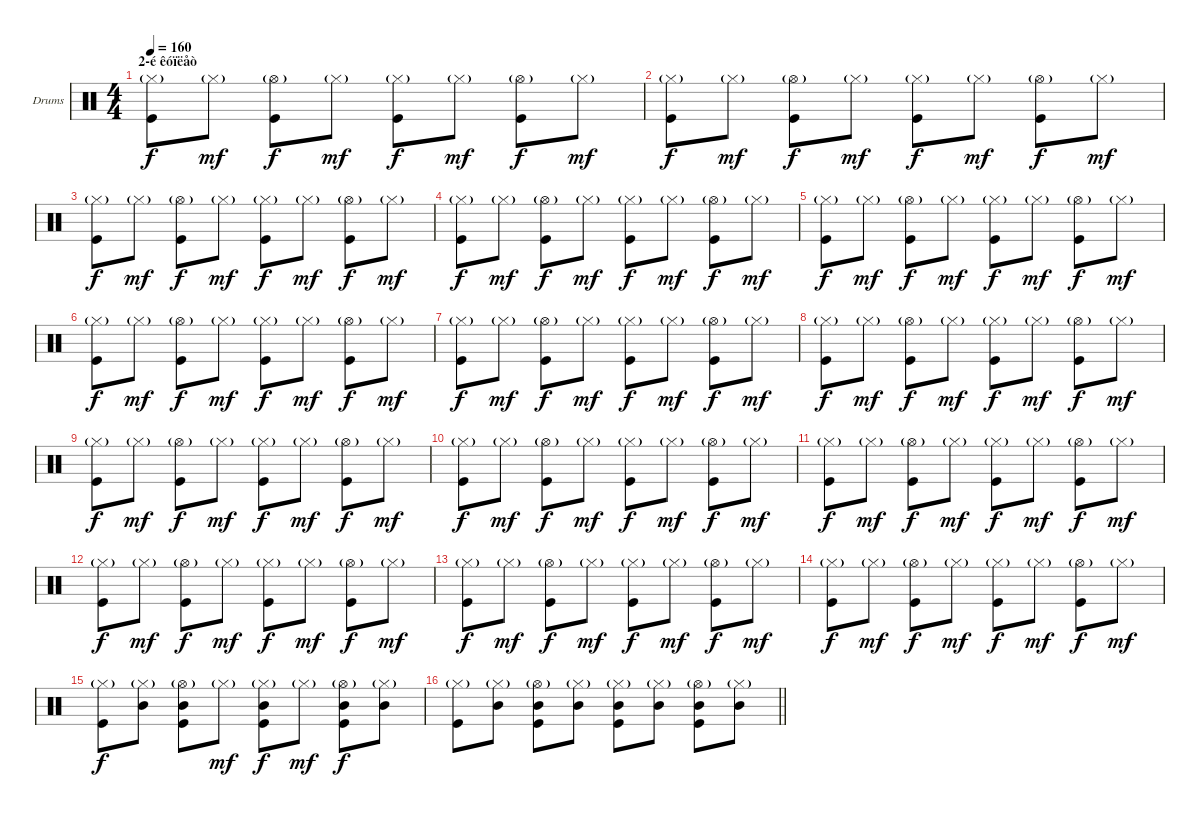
\bracketExtendMode groupsimilarinstruments
\firstSystemTrackNameOrientation horizontal
\otherSystemsTrackNameOrientation horizontal
\track ("Гурьянов" "Drums") {instrument percussion}
\staff {score}
\articulation defaults
\ts (4 4)
\section ("" "2-é êóïëåò")
\tempo 160
\clef neutral
\scale
0.333333
\ks c
("Hi-Hat (closed)"{g} "Kick (hit)").8{dy f} "Hi-Hat (closed)"{g}.8{dy mf} ("Hi-Hat (open)"{g} "Kick (hit)").8{dy f} "Hi-Hat (closed)"{g}.8{dy mf} ("Hi-Hat (closed)"{g} "Kick (hit)").8{dy f} "Hi-Hat (closed)"{g}.8{dy mf} ("Hi-Hat (open)"{g} "Kick (hit)").8{dy f} "Hi-Hat (closed)"{g}.8{dy mf} |
\scale
0.333333 ("Hi-Hat (closed)"{g} "Kick (hit)").8{dy f} "Hi-Hat (closed)"{g}.8{dy mf} ("Hi-Hat (open)"{g} "Kick (hit)").8{dy f} "Hi-Hat (closed)"{g}.8{dy mf} ("Hi-Hat (closed)"{g} "Kick (hit)").8{dy f} "Hi-Hat (closed)"{g}.8{dy mf} ("Hi-Hat (open)"{g} "Kick (hit)").8{dy f} "Hi-Hat (closed)"{g}.8{dy mf} |
\scale
0.333333 ("Hi-Hat (closed)"{g} "Kick (hit)").8{dy f} "Hi-Hat (closed)"{g}.8{dy mf} ("Hi-Hat (open)"{g} "Kick (hit)").8{dy f} "Hi-Hat (closed)"{g}.8{dy mf} ("Hi-Hat (closed)"{g} "Kick (hit)").8{dy f} "Hi-Hat (closed)"{g}.8{dy mf} ("Hi-Hat (open)"{g} "Kick (hit)").8{dy f} "Hi-Hat (closed)"{g}.8{dy mf} |
\scale
0.333333 ("Hi-Hat (closed)"{g} "Kick (hit)").8{dy f} "Hi-Hat (closed)"{g}.8{dy mf} ("Hi-Hat (open)"{g} "Kick (hit)").8{dy f} "Hi-Hat (closed)"{g}.8{dy mf} ("Hi-Hat (closed)"{g} "Kick (hit)").8{dy f} "Hi-Hat (closed)"{g}.8{dy mf} ("Hi-Hat (open)"{g} "Kick (hit)").8{dy f} "Hi-Hat (closed)"{g}.8{dy mf} |
\scale
0.333333 ("Hi-Hat (closed)"{g} "Kick (hit)").8{dy f} "Hi-Hat (closed)"{g}.8{dy mf} ("Hi-Hat (open)"{g} "Kick (hit)").8{dy f} "Hi-Hat (closed)"{g}.8{dy mf} ("Hi-Hat (closed)"{g} "Kick (hit)").8{dy f} "Hi-Hat (closed)"{g}.8{dy mf} ("Hi-Hat (open)"{g} "Kick (hit)").8{dy f} "Hi-Hat (closed)"{g}.8{dy mf} |
\scale
0.333333 ("Hi-Hat (closed)"{g} "Kick (hit)").8{dy f} "Hi-Hat (closed)"{g}.8{dy mf} ("Hi-Hat (open)"{g} "Kick (hit)").8{dy f} "Hi-Hat (closed)"{g}.8{dy mf} ("Hi-Hat (closed)"{g} "Kick (hit)").8{dy f} "Hi-Hat (closed)"{g}.8{dy mf} ("Hi-Hat (open)"{g} "Kick (hit)").8{dy f} "Hi-Hat (closed)"{g}.8{dy mf} |
\scale
0.333333 ("Hi-Hat (closed)"{g} "Kick (hit)").8{dy f} "Hi-Hat (closed)"{g}.8{dy mf} ("Hi-Hat (open)"{g} "Kick (hit)").8{dy f} "Hi-Hat (closed)"{g}.8{dy mf} ("Hi-Hat (closed)"{g} "Kick (hit)").8{dy f} "Hi-Hat (closed)"{g}.8{dy mf} ("Hi-Hat (open)"{g} "Kick (hit)").8{dy f} "Hi-Hat (closed)"{g}.8{dy mf} |
\scale
0.333333 ("Hi-Hat (closed)"{g} "Kick (hit)").8{dy f} "Hi-Hat (closed)"{g}.8{dy mf} ("Hi-Hat (open)"{g} "Kick (hit)").8{dy f} "Hi-Hat (closed)"{g}.8{dy mf} ("Hi-Hat (closed)"{g} "Kick (hit)").8{dy f} "Hi-Hat (closed)"{g}.8{dy mf} ("Hi-Hat (open)"{g} "Kick (hit)").8{dy f} "Hi-Hat (closed)"{g}.8{dy mf} |
\scale
0.333333 ("Hi-Hat (closed)"{g} "Kick (hit)").8{dy f} "Hi-Hat (closed)"{g}.8{dy mf} ("Hi-Hat (open)"{g} "Kick (hit)").8{dy f} "Hi-Hat (closed)"{g}.8{dy mf} ("Hi-Hat (closed)"{g} "Kick (hit)").8{dy f} "Hi-Hat (closed)"{g}.8{dy mf} ("Hi-Hat (open)"{g} "Kick (hit)").8{dy f} "Hi-Hat (closed)"{g}.8{dy mf} |
\scale
0.333333 ("Hi-Hat (closed)"{g} "Kick (hit)").8{dy f} "Hi-Hat (closed)"{g}.8{dy mf} ("Hi-Hat (open)"{g} "Kick (hit)").8{dy f} "Hi-Hat (closed)"{g}.8{dy mf} ("Hi-Hat (closed)"{g} "Kick (hit)").8{dy f} "Hi-Hat (closed)"{g}.8{dy mf} ("Hi-Hat (open)"{g} "Kick (hit)").8{dy f} "Hi-Hat (closed)"{g}.8{dy mf} |
\scale
0.333333 ("Hi-Hat (closed)"{g} "Kick (hit)").8{dy f} "Hi-Hat (closed)"{g}.8{dy mf} ("Hi-Hat (open)"{g} "Kick (hit)").8{dy f} "Hi-Hat (closed)"{g}.8{dy mf} ("Hi-Hat (closed)"{g} "Kick (hit)").8{dy f} "Hi-Hat (closed)"{g}.8{dy mf} ("Hi-Hat (open)"{g} "Kick (hit)").8{dy f} "Hi-Hat (closed)"{g}.8{dy mf} |
\scale
0.333333 ("Hi-Hat (closed)"{g} "Kick (hit)").8{dy f} "Hi-Hat (closed)"{g}.8{dy mf} ("Hi-Hat (open)"{g} "Kick (hit)").8{dy f} "Hi-Hat (closed)"{g}.8{dy mf} ("Hi-Hat (closed)"{g} "Kick (hit)").8{dy f} "Hi-Hat (closed)"{g}.8{dy mf} ("Hi-Hat (open)"{g} "Kick (hit)").8{dy f} "Hi-Hat (closed)"{g}.8{dy mf} |
\scale
0.333333 ("Hi-Hat (closed)"{g} "Kick (hit)").8{dy f} "Hi-Hat (closed)"{g}.8{dy mf} ("Hi-Hat (open)"{g} "Kick (hit)").8{dy f} "Hi-Hat (closed)"{g}.8{dy mf} ("Hi-Hat (closed)"{g} "Kick (hit)").8{dy f} "Hi-Hat (closed)"{g}.8{dy mf} ("Hi-Hat (open)"{g} "Kick (hit)").8{dy f} "Hi-Hat (closed)"{g}.8{dy mf} |
\scale
0.333333 ("Hi-Hat (closed)"{g} "Kick (hit)").8{dy f} "Hi-Hat (closed)"{g}.8{dy mf} ("Hi-Hat (open)"{g} "Kick (hit)").8{dy f} "Hi-Hat (closed)"{g}.8{dy mf} ("Hi-Hat (closed)"{g} "Kick (hit)").8{dy f} "Hi-Hat (closed)"{g}.8{dy mf} ("Hi-Hat (open)"{g} "Kick (hit)").8{dy f} "Hi-Hat (closed)"{g}.8{dy mf} |
\scale
0.333333 ("Hi-Hat (closed)"{g} "Kick (hit)").8{dy f} ("Hi-Hat (closed)"{g} "Mid Tom (hit)").8 ("Hi-Hat (open)"{g} "Mid Tom (hit)" "Kick (hit)").8 "Hi-Hat (closed)"{g}.8{dy mf} ("Hi-Hat (closed)"{g} "Mid Tom (hit)" "Kick (hit)").8{dy f} "Hi-Hat (closed)"{g}.8{dy mf} ("Hi-Hat (open)"{g} "Mid Tom (hit)" "Kick (hit)").8{dy f} ("Hi-Hat (closed)"{g} "Mid Tom (hit)").8 |
\scale
0.333333
\barLineRight lightlight
("Hi-Hat (closed)"{g} "Kick (hit)").8 ("Hi-Hat (closed)"{g} "Mid Tom (hit)").8 ("Hi-Hat (open)"{g} "Mid Tom (hit)" "Kick (hit)").8 ("Hi-Hat (closed)"{g} "Mid Tom (hit)").8 ("Hi-Hat (closed)"{g} "Mid Tom (hit)" "Kick (hit)").8 ("Hi-Hat (closed)"{g} "Mid Tom (hit)").8 ("Hi-Hat (open)"{g} "Mid Tom (hit)" "Kick (hit)").8 ("Hi-Hat (closed)"{g} "Mid Tom (hit)").8
